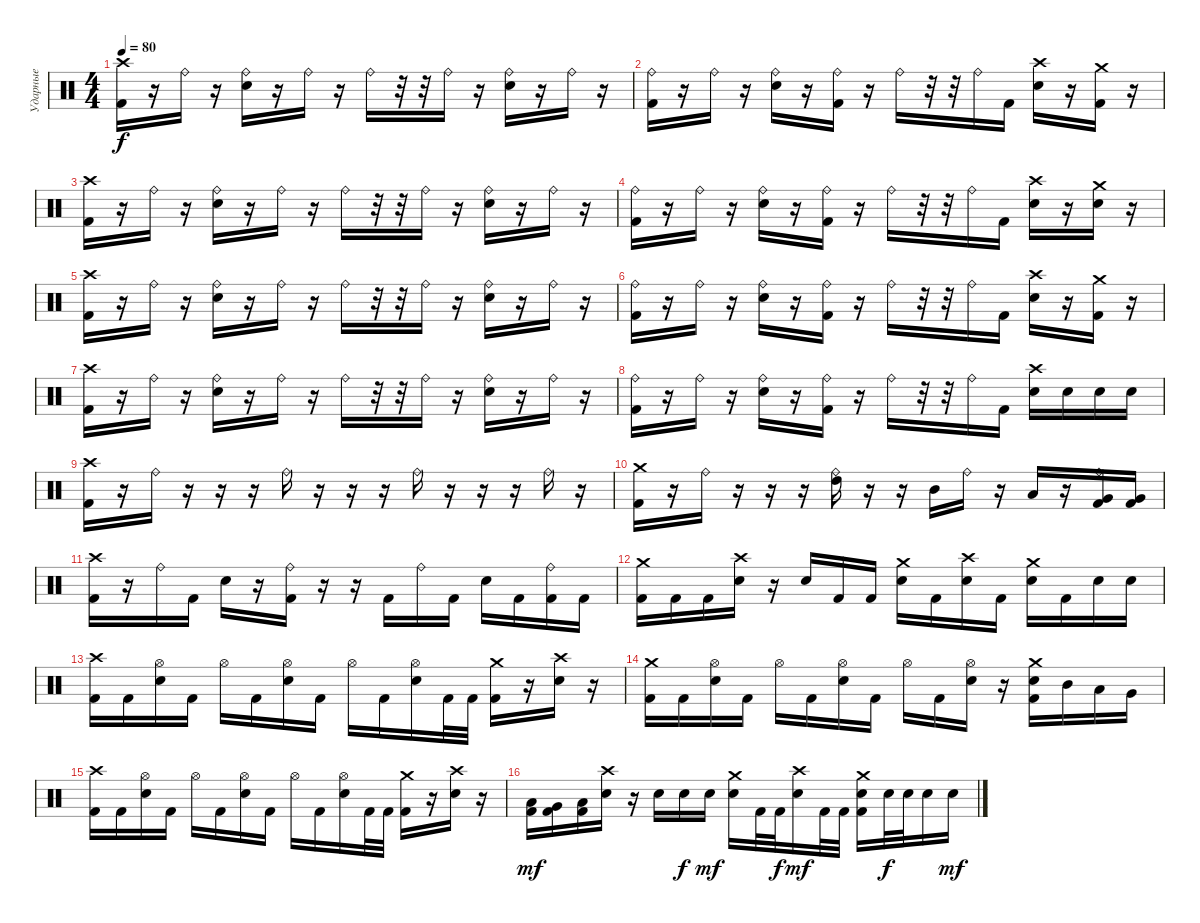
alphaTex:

\track ("Ударные" "Ударные") {instrument percussion}
\staff {score}
\articulation defaults
\ts (4 4)
\tempo 80
\clef neutral
\ks c
("Kick (hit) 2" "Crash high (hit)").16{dy f} r.16 "Ride (bell)".16 r.16 ("Electric Snare (hit)" "Ride (bell)").16 r.16 "Ride (bell)".16 r.16 "Ride (bell)".16 r.32 r.32 "Ride (bell)".16 r.16 ("Electric Snare (hit)" "Ride (bell)").16 r.16 "Ride (bell)".16 r.16 |
("Kick (hit) 2" "Ride (bell)").16 r.16 "Ride (bell)".16 r.16 ("Electric Snare (hit)" "Ride (bell)").16 r.16 ("Kick (hit) 2" "Ride (bell)").16 r.16 "Ride (bell)".16 r.32 r.32 "Ride (bell)".16 "Kick (hit) 2".16 ("Electric Snare (hit)" "Crash high (hit)").16 r.16 ("Kick (hit) 2" "Crash medium (hit)").16 r.16 |
("Kick (hit) 2" "Crash high (hit)").16 r.16 "Ride (bell)".16 r.16 ("Electric Snare (hit)" "Ride (bell)").16 r.16 "Ride (bell)".16 r.16 "Ride (bell)".16 r.32 r.32 "Ride (bell)".16 r.16 ("Electric Snare (hit)" "Ride (bell)").16 r.16 "Ride (bell)".16 r.16 |
("Kick (hit) 2" "Ride (bell)").16 r.16 "Ride (bell)".16 r.16 ("Electric Snare (hit)" "Ride (bell)").16 r.16 ("Kick (hit) 2" "Ride (bell)").16 r.16 "Ride (bell)".16 r.32 r.32 "Ride (bell)".16 "Kick (hit) 2".16 ("Electric Snare (hit)" "Crash high (hit)").16 r.16 ("Electric Snare (hit)" "Crash medium (hit)").16 r.16 |
("Kick (hit) 2" "Crash high (hit)").16 r.16 "Ride (bell)".16 r.16 ("Electric Snare (hit)" "Ride (bell)").16 r.16 "Ride (bell)".16 r.16 "Ride (bell)".16 r.32 r.32 "Ride (bell)".16 r.16 ("Electric Snare (hit)" "Ride (bell)").16 r.16 "Ride (bell)".16 r.16 |
("Kick (hit) 2" "Ride (bell)").16 r.16 "Ride (bell)".16 r.16 ("Electric Snare (hit)" "Ride (bell)").16 r.16 ("Kick (hit) 2" "Ride (bell)").16 r.16 "Ride (bell)".16 r.32 r.32 "Ride (bell)".16 "Kick (hit) 2".16 ("Electric Snare (hit)" "Crash high (hit)").16 r.16 ("Kick (hit) 2" "Crash medium (hit)").16 r.16 |
("Kick (hit) 2" "Crash high (hit)").16 r.16 "Ride (bell)".16 r.16 ("Electric Snare (hit)" "Ride (bell)").16 r.16 "Ride (bell)".16 r.16 "Ride (bell)".16 r.32 r.32 "Ride (bell)".16 r.16 ("Electric Snare (hit)" "Ride (bell)").16 r.16 "Ride (bell)".16 r.16 |
("Kick (hit) 2" "Ride (bell)").16 r.16 "Ride (bell)".16 r.16 ("Electric Snare (hit)" "Ride (bell)").16 r.16 ("Kick (hit) 2" "Ride (bell)").16 r.16 "Ride (bell)".16 r.32 r.32 "Ride (bell)".16 "Kick (hit) 2".16 ("Electric Snare (hit)" "Crash high (hit)").16 "Electric Snare (hit)".16 "Electric Snare (hit)".16 "Electric Snare (hit)".16 |
("Crash high (hit)" "Kick (hit) 2").16 r.16 "Ride (bell)".16 r.16 r.16 r.16 "Ride (bell)".16 r.16 r.16 r.16 "Ride (bell)".16 r.16 r.16 r.16 "Ride (bell)".16 r.16 |
("Crash medium (hit)" "Kick (hit) 2").16 r.16 "Ride (bell)".16 r.16 r.16 r.16 ("Ride (bell)" "High Tom (hit)").16 r.16 r.16 "Mid Tom (hit)".16 "Ride (bell)".16 r.16 "Low Tom (hit)".16 r.16 ("Ride (bell)" "Very Low Tom (hit)" "Kick (hit) 2").16 ("Very Low Tom (hit)" "Kick (hit) 2").16 |
("Crash high (hit)" "Kick (hit) 2").16 r.16 "Ride (bell)".16 "Kick (hit) 2".16 "Electric Snare (hit)".16 r.16 ("Ride (bell)" "Kick (hit) 2").16 r.16 r.16 "Kick (hit) 2".16 "Ride (bell)".16 "Kick (hit) 2".16 "Electric Snare (hit)".16 "Kick (hit) 2".16 ("Ride (bell)" "Kick (hit) 2").16 "Kick (hit) 2".16 |
("Crash medium (hit)" "Kick (hit) 2").16 "Kick (hit) 2".16 "Kick (hit) 2".16 ("Crash high (hit)" "Electric Snare (hit)").16 r.16 "Electric Snare (hit)".16 "Kick (hit) 2".16 "Kick (hit) 2".16 ("Crash medium (hit)" "Electric Snare (hit)").16 "Kick (hit) 2".16 ("Crash high (hit)" "Electric Snare (hit)").16 "Kick (hit) 2".16 ("Crash medium (hit)" "Electric Snare (hit)").16 "Kick (hit) 2".16 "Electric Snare (hit)".16 "Electric Snare (hit)".16 |
("Crash high (hit)" "Kick (hit) 2").16 "Kick (hit) 2".16 ("Hi-Hat (open)" "Electric Snare (hit)").16 "Kick (hit) 2".16 "Hi-Hat (open)".16 "Kick (hit) 2".16 ("Hi-Hat (open)" "Electric Snare (hit)").16 "Kick (hit) 2".16 "Hi-Hat (open)".16 "Kick (hit) 2".16 ("Hi-Hat (open)" "Electric Snare (hit)").16 "Kick (hit) 2".32 "Kick (hit) 2".32 ("Crash medium (hit)" "Kick (hit) 2").16 r.16 ("Crash high (hit)" "Electric Snare (hit)").16 r.16 |
("Crash medium (hit)" "Kick (hit) 2").16 "Kick (hit) 2".16 ("Hi-Hat (open)" "Electric Snare (hit)").16 "Kick (hit) 2".16 "Hi-Hat (open)".16 "Kick (hit) 2".16 ("Hi-Hat (open)" "Electric Snare (hit)").16 "Kick (hit) 2".16 "Hi-Hat (open)".16 "Kick (hit) 2".16 ("Hi-Hat (open)" "Electric Snare (hit)").16 r.16 ("Crash medium (hit)" "Electric Snare (hit)" "Kick (hit) 2").16 "Mid Tom (hit)".16 "Low Tom (hit)".16 "Very Low Tom (hit)".16 |
("Crash high (hit)" "Kick (hit) 2").16 "Kick (hit) 2".16 ("Hi-Hat (open)" "Electric Snare (hit)").16 "Kick (hit) 2".16 "Hi-Hat (open)".16 "Kick (hit) 2".16 ("Hi-Hat (open)" "Electric Snare (hit)").16 "Kick (hit) 2".16 "Hi-Hat (open)".16 "Kick (hit) 2".16 ("Hi-Hat (open)" "Electric Snare (hit)").16 "Kick (hit) 2".32 "Kick (hit) 2".32 ("Crash medium (hit)" "Kick (hit) 2").16 r.16 ("Crash high (hit)" "Electric Snare (hit)").16 r.16 |
("Low Tom (hit)" "Kick (hit) 2").16{dy mf} ("Very Low Tom (hit)" "Kick (hit) 2").16 ("Low Floor Tom (hit)" "Kick (hit) 2").16 ("Crash high (hit)" "Electric Snare (hit)").16 r.16 "Electric Snare (hit)".16 "Electric Snare (hit)".16{dy f} "Electric Snare (hit)".16{dy mf} ("Crash medium (hit)" "Electric Snare (hit)").16 "Kick (hit) 2".32 "Kick (hit) 2".32{dy f} ("Crash high (hit)" "Electric Snare (hit)").16{dy mf} "Kick (hit) 2".32 "Kick (hit) 2".32 ("Crash medium (hit)" "Electric Snare (hit)" "Kick (hit) 2").16 "Electric Snare (hit)".32{dy f} "Electric Snare (hit)".32 "Electric Snare (hit)".16 "Electric Snare (hit)".16{dy mf}
